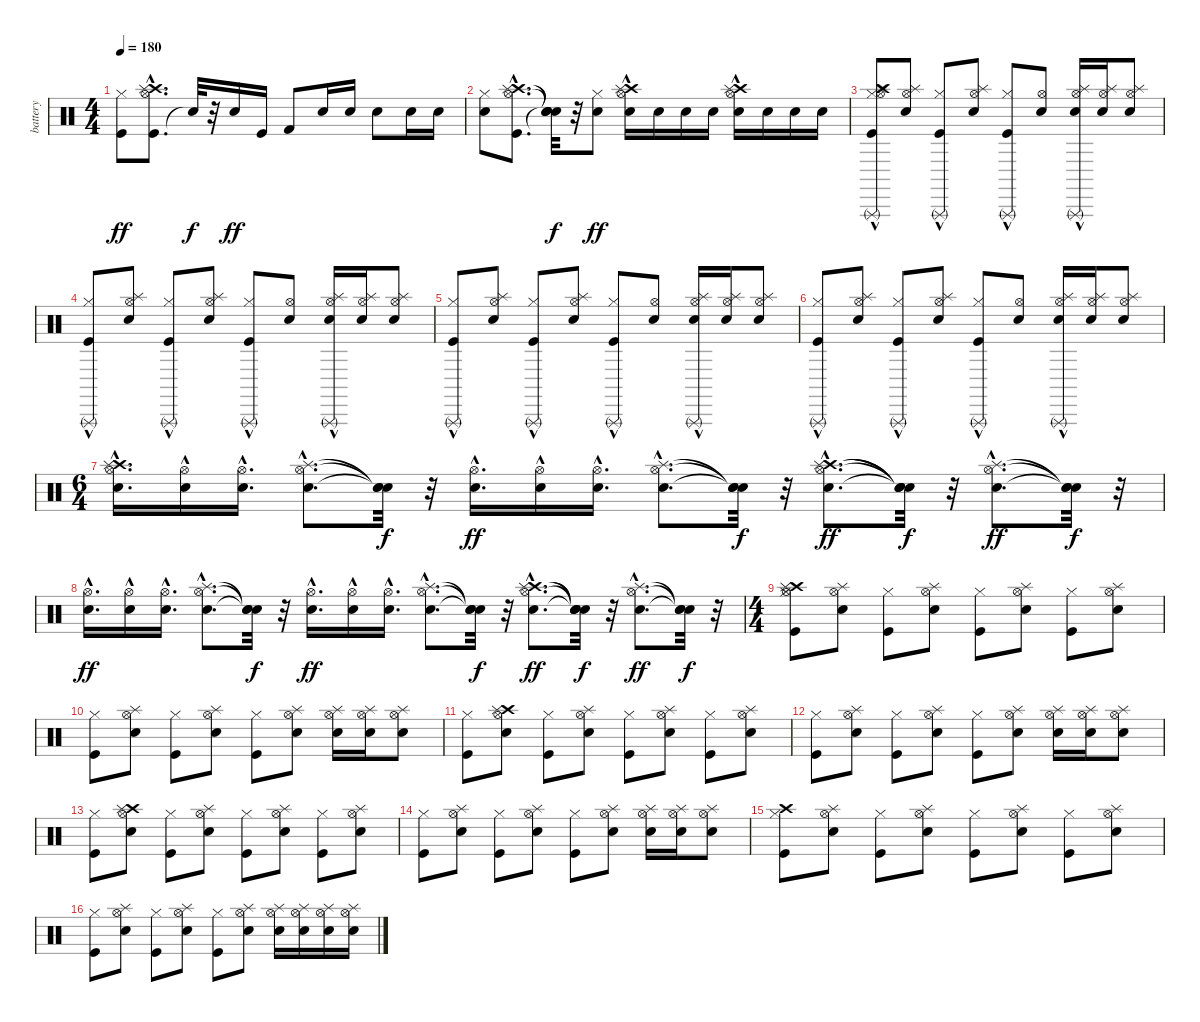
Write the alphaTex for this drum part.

\track ("battery" "battery") {instrument percussion}
\staff {score}
\articulation defaults
\ts (4 4)
\tempo 180
\clef neutral
\ks c
("Kick (hit)" "Hi-Hat (closed)").8{dy ff} ("Kick (hit)"{hac} "Hi-Hat (open)" "Crash high (hit)" "Splash (hit)").8{d} "Snare (hit)"{t}.32{dy f} r.32 "Snare (hit) 2".16{dy ff} "Kick (hit)".16 "Kick (hit) 2".8 "Electric Snare (hit)".16 "Electric Snare (hit)".16 "Electric Snare (hit)".8 "Electric Snare (hit)".16 "Electric Snare (hit)".16 |
("Electric Snare (hit)" "Hi-Hat (closed)").8 ("Kick (hit)"{hac} "Hi-Hat (open)"{hac} "Crash high (hit)"{hac} "Splash (hit)"{hac}).8{d} ("Snare (hit)"{t} "Snare (hit)"{t} "Snare (hit)"{t} "Snare (hit)"{t}).32{dy f} r.32 ("Electric Snare (hit)" "Hi-Hat (closed)").8{dy ff} ("Electric Snare (hit)" "Hi-Hat (open)"{hac} "Crash high (hit)"{hac} "Splash (hit)"{hac}).16 "Electric Snare (hit)".16 "Electric Snare (hit)".16 "Electric Snare (hit)".16 ("Electric Snare (hit)" "Hi-Hat (open)"{hac} "Crash high (hit)"{hac} "Splash (hit)"{hac}).16 "Electric Snare (hit)".16 "Electric Snare (hit)".16 "Electric Snare (hit)".16 |
("Kick (hit)" "Hi-Hat (closed)" "Hi-Hat (open)" "Crash high (hit)" "Splash (hit)" "Triangle (rnute)"{hac}).8 ("Electric Snare (hit)" "Hi-Hat (open)" "Splash (hit)").8 ("Kick (hit)" "Hi-Hat (closed)" "Triangle (rnute)"{hac}).8 ("Electric Snare (hit)" "Hi-Hat (open)" "Splash (hit)").8 ("Kick (hit)" "Hi-Hat (closed)" "Triangle (rnute)"{hac}).8 ("Electric Snare (hit)" "Hi-Hat (open)").8 ("Electric Snare (hit)" "Hi-Hat (open)" "Splash (hit)" "Triangle (rnute)"{hac}).16 ("Electric Snare (hit)" "Hi-Hat (open)" "Splash (hit)").16 ("Electric Snare (hit)" "Hi-Hat (open)" "Splash (hit)").8 |
("Kick (hit)" "Hi-Hat (closed)" "Triangle (rnute)"{hac}).8 ("Electric Snare (hit)" "Hi-Hat (open)" "Splash (hit)").8 ("Kick (hit)" "Hi-Hat (closed)" "Triangle (rnute)"{hac}).8 ("Electric Snare (hit)" "Hi-Hat (open)" "Splash (hit)").8 ("Kick (hit)" "Hi-Hat (closed)" "Triangle (rnute)"{hac}).8 ("Electric Snare (hit)" "Hi-Hat (open)").8 ("Electric Snare (hit)" "Hi-Hat (open)" "Splash (hit)" "Triangle (rnute)"{hac}).16 ("Electric Snare (hit)" "Hi-Hat (open)" "Splash (hit)").16 ("Electric Snare (hit)" "Hi-Hat (open)" "Splash (hit)").8 |
("Kick (hit)" "Hi-Hat (closed)" "Triangle (rnute)"{hac}).8 ("Electric Snare (hit)" "Hi-Hat (open)" "Splash (hit)").8 ("Kick (hit)" "Hi-Hat (closed)" "Triangle (rnute)"{hac}).8 ("Electric Snare (hit)" "Hi-Hat (open)" "Splash (hit)").8 ("Kick (hit)" "Hi-Hat (closed)" "Triangle (rnute)"{hac}).8 ("Electric Snare (hit)" "Hi-Hat (open)").8 ("Electric Snare (hit)" "Hi-Hat (open)" "Splash (hit)" "Triangle (rnute)"{hac}).16 ("Electric Snare (hit)" "Hi-Hat (open)" "Splash (hit)").16 ("Electric Snare (hit)" "Hi-Hat (open)" "Splash (hit)").8 |
("Kick (hit)" "Hi-Hat (closed)" "Triangle (rnute)"{hac}).8 ("Electric Snare (hit)" "Hi-Hat (open)" "Splash (hit)").8 ("Kick (hit)" "Hi-Hat (closed)" "Triangle (rnute)"{hac}).8 ("Electric Snare (hit)" "Hi-Hat (open)" "Splash (hit)").8 ("Kick (hit)" "Hi-Hat (closed)" "Triangle (rnute)"{hac}).8 ("Electric Snare (hit)" "Hi-Hat (open)").8 ("Electric Snare (hit)" "Hi-Hat (open)" "Splash (hit)" "Triangle (rnute)"{hac}).16 ("Electric Snare (hit)" "Hi-Hat (open)" "Splash (hit)").16 ("Electric Snare (hit)" "Hi-Hat (open)" "Splash (hit)").8 |
\ts (6 4)
("Electric Snare (hit)"{hac} "Hi-Hat (open)"{hac} "Crash high (hit)"{hac} "Splash (hit)"{hac}).16{d} ("Electric Snare (hit)"{hac} "Hi-Hat (open)"{hac}).16 ("Electric Snare (hit)"{hac} "Hi-Hat (open)"{hac}).16{d} ("Electric Snare (hit)"{hac} "Hi-Hat (open)"{hac} "Splash (hit)"{hac}).8{d} ("Snare (hit)"{t} "Snare (hit)"{t} "Snare (hit)"{t}).32{dy f} r.32 ("Electric Snare (hit)"{hac} "Hi-Hat (open)"{hac}).16{d dy ff} ("Electric Snare (hit)"{hac} "Hi-Hat (open)"{hac}).16 ("Electric Snare (hit)"{hac} "Hi-Hat (open)"{hac}).16{d} ("Electric Snare (hit)"{hac} "Hi-Hat (open)"{hac} "Splash (hit)"{hac}).8{d} ("Snare (hit)"{t} "Snare (hit)"{t} "Snare (hit)"{t}).32{dy f} r.32 ("Electric Snare (hit)"{hac} "Hi-Hat (open)"{hac} "Crash high (hit)"{hac} "Splash (hit)"{hac}).8{d dy ff} ("Snare (hit)"{t} "Snare (hit)"{t} "Snare (hit)"{t} "Snare (hit)"{t}).32{dy f} r.32 ("Electric Snare (hit)"{hac} "Hi-Hat (open)"{hac} "Splash (hit)"{hac}).8{d dy ff} ("Snare (hit)"{t} "Snare (hit)"{t} "Snare (hit)"{t}).32{dy f} r.32 |
("Electric Snare (hit)"{hac} "Hi-Hat (open)"{hac}).16{d dy ff} ("Electric Snare (hit)"{hac} "Hi-Hat (open)"{hac}).16 ("Electric Snare (hit)"{hac} "Hi-Hat (open)"{hac}).16{d} ("Electric Snare (hit)"{hac} "Hi-Hat (open)"{hac} "Splash (hit)"{hac}).8{d} ("Snare (hit)"{t} "Snare (hit)"{t} "Snare (hit)"{t}).32{dy f} r.32 ("Electric Snare (hit)"{hac} "Hi-Hat (open)"{hac}).16{d dy ff} ("Electric Snare (hit)"{hac} "Hi-Hat (open)"{hac}).16 ("Electric Snare (hit)"{hac} "Hi-Hat (open)"{hac}).16{d} ("Electric Snare (hit)"{hac} "Hi-Hat (open)"{hac} "Splash (hit)"{hac}).8{d} ("Snare (hit)"{t} "Snare (hit)"{t} "Snare (hit)"{t}).32{dy f} r.32 ("Electric Snare (hit)"{hac} "Hi-Hat (open)"{hac} "Crash high (hit)"{hac} "Splash (hit)"{hac}).8{d dy ff} ("Snare (hit)"{t} "Snare (hit)"{t} "Snare (hit)"{t} "Snare (hit)"{t}).32{dy f} r.32 ("Electric Snare (hit)"{hac} "Hi-Hat (open)"{hac} "Splash (hit)"{hac}).8{d dy ff} ("Snare (hit)"{t} "Snare (hit)"{t} "Snare (hit)"{t}).32{dy f} r.32 |
\ts (4 4)
("Kick (hit)" "Hi-Hat (closed)" "Hi-Hat (open)" "Crash high (hit)" "Splash (hit)").8 ("Electric Snare (hit)" "Hi-Hat (open)" "Splash (hit)").8 ("Kick (hit)" "Hi-Hat (closed)").8 ("Electric Snare (hit)" "Hi-Hat (open)" "Splash (hit)").8 ("Kick (hit)" "Hi-Hat (closed)").8 ("Electric Snare (hit)" "Hi-Hat (open)" "Splash (hit)").8 ("Kick (hit)" "Hi-Hat (closed)").8 ("Electric Snare (hit)" "Hi-Hat (open)" "Splash (hit)").8 |
("Kick (hit)" "Hi-Hat (closed)").8 ("Electric Snare (hit)" "Hi-Hat (open)" "Splash (hit)").8 ("Kick (hit)" "Hi-Hat (closed)").8 ("Electric Snare (hit)" "Hi-Hat (open)" "Splash (hit)").8 ("Kick (hit)" "Hi-Hat (closed)").8 ("Electric Snare (hit)" "Hi-Hat (open)" "Splash (hit)").8 ("Electric Snare (hit)" "Hi-Hat (open)" "Splash (hit)").16 ("Electric Snare (hit)" "Hi-Hat (open)" "Splash (hit)").16 ("Electric Snare (hit)" "Hi-Hat (open)" "Splash (hit)").8 |
("Kick (hit)" "Hi-Hat (closed)").8 ("Electric Snare (hit)" "Hi-Hat (open)" "Crash high (hit)" "Splash (hit)").8 ("Kick (hit)" "Hi-Hat (closed)").8 ("Electric Snare (hit)" "Hi-Hat (open)" "Splash (hit)").8 ("Kick (hit)" "Hi-Hat (closed)").8 ("Electric Snare (hit)" "Hi-Hat (open)" "Splash (hit)").8 ("Kick (hit)" "Hi-Hat (closed)").8 ("Electric Snare (hit)" "Hi-Hat (open)" "Splash (hit)").8 |
("Kick (hit)" "Hi-Hat (closed)").8 ("Electric Snare (hit)" "Hi-Hat (open)" "Splash (hit)").8 ("Kick (hit)" "Hi-Hat (closed)").8 ("Electric Snare (hit)" "Hi-Hat (open)" "Splash (hit)").8 ("Kick (hit)" "Hi-Hat (closed)").8 ("Electric Snare (hit)" "Hi-Hat (open)" "Splash (hit)").8 ("Electric Snare (hit)" "Hi-Hat (open)" "Splash (hit)").16 ("Electric Snare (hit)" "Hi-Hat (open)" "Splash (hit)").16 ("Electric Snare (hit)" "Hi-Hat (open)" "Splash (hit)").8 |
("Kick (hit)" "Hi-Hat (closed)").8 ("Electric Snare (hit)" "Hi-Hat (open)" "Crash high (hit)" "Splash (hit)").8 ("Kick (hit)" "Hi-Hat (closed)").8 ("Electric Snare (hit)" "Hi-Hat (open)" "Splash (hit)").8 ("Kick (hit)" "Hi-Hat (closed)").8 ("Electric Snare (hit)" "Hi-Hat (open)" "Splash (hit)").8 ("Kick (hit)" "Hi-Hat (closed)").8 ("Electric Snare (hit)" "Hi-Hat (open)" "Splash (hit)").8 |
("Kick (hit)" "Hi-Hat (closed)").8 ("Electric Snare (hit)" "Hi-Hat (open)" "Splash (hit)").8 ("Kick (hit)" "Hi-Hat (closed)").8 ("Electric Snare (hit)" "Hi-Hat (open)" "Splash (hit)").8 ("Kick (hit)" "Hi-Hat (closed)").8 ("Electric Snare (hit)" "Hi-Hat (open)" "Splash (hit)").8 ("Electric Snare (hit)" "Hi-Hat (open)" "Splash (hit)").16 ("Electric Snare (hit)" "Hi-Hat (open)" "Splash (hit)").16 ("Electric Snare (hit)" "Hi-Hat (open)" "Splash (hit)").8 |
("Kick (hit)" "Hi-Hat (closed)" "Crash high (hit)").8 ("Electric Snare (hit)" "Hi-Hat (open)" "Splash (hit)").8 ("Kick (hit)" "Hi-Hat (closed)").8 ("Electric Snare (hit)" "Hi-Hat (open)" "Splash (hit)").8 ("Kick (hit)" "Hi-Hat (closed)").8 ("Electric Snare (hit)" "Hi-Hat (open)" "Splash (hit)").8 ("Kick (hit)" "Hi-Hat (closed)").8 ("Electric Snare (hit)" "Hi-Hat (open)" "Splash (hit)").8 |
("Kick (hit)" "Hi-Hat (closed)").8 ("Electric Snare (hit)" "Hi-Hat (open)" "Splash (hit)").8 ("Kick (hit)" "Hi-Hat (closed)").8 ("Electric Snare (hit)" "Hi-Hat (open)" "Splash (hit)").8 ("Kick (hit)" "Hi-Hat (closed)").8 ("Electric Snare (hit)" "Hi-Hat (open)" "Splash (hit)").8 ("Electric Snare (hit)" "Hi-Hat (open)" "Splash (hit)").16 ("Electric Snare (hit)" "Hi-Hat (open)" "Splash (hit)").16 ("Electric Snare (hit)" "Hi-Hat (open)" "Splash (hit)").16 ("Electric Snare (hit)" "Hi-Hat (open)" "Splash (hit)").16
